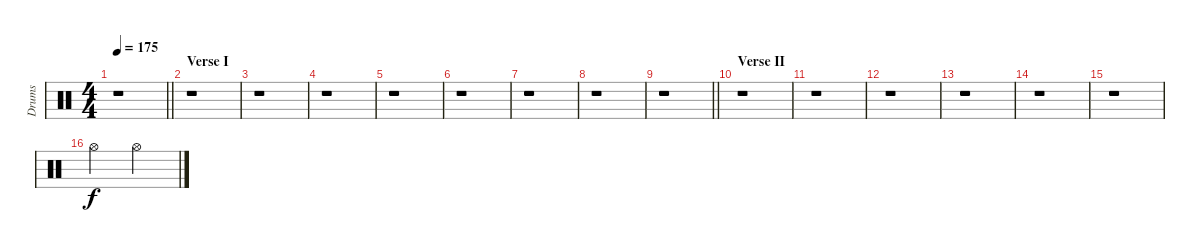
\track ("Drums" "Drums") {instrument percussion}
\staff {score}
\articulation defaults
\ts (4 4)
\tempo 175
\clef neutral
\barLineRight lightlight
\ks c
r.1{dy f} |
\section ("" "Verse I")
r.1 |
r.1 |
r.1 |
r.1 |
r.1 |
r.1 |
r.1 |
\barLineRight lightlight
r.1 |
\section ("" "Verse II")
r.1 |
r.1 |
r.1 |
r.1 |
r.1 |
r.1 |
"Hi-Hat (open)".2 "Hi-Hat (open)".2
